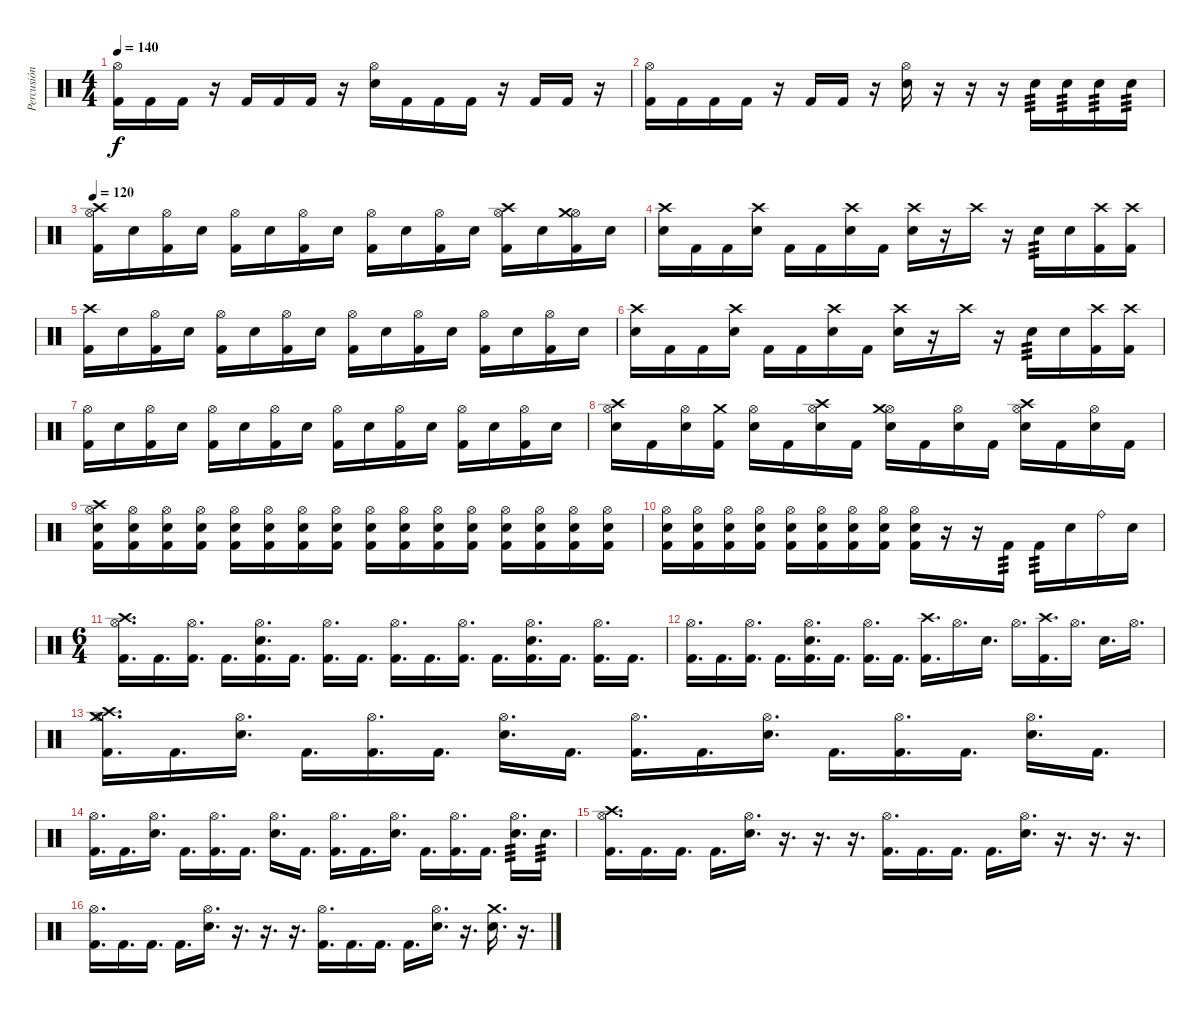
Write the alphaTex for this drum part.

\track ("Percusión" "Percusión") {instrument percussion}
\staff {score}
\articulation defaults
\ts (4 4)
\tempo 140
\clef neutral
\ks c
("Hi-Hat (open)" "Kick (hit) 2").16{dy f} "Kick (hit) 2".16 "Kick (hit) 2".16 r.16 "Kick (hit) 2".16 "Kick (hit) 2".16 "Kick (hit) 2".16 r.16 ("Hi-Hat (open)" "Electric Snare (hit)").16 "Kick (hit) 2".16 "Kick (hit) 2".16 "Kick (hit) 2".16 r.16 "Kick (hit) 2".16 "Kick (hit) 2".16 r.16 |
("Hi-Hat (open)" "Kick (hit) 2").16 "Kick (hit) 2".16 "Kick (hit) 2".16 "Kick (hit) 2".16 r.16 "Kick (hit) 2".16 "Kick (hit) 2".16 r.16 ("Hi-Hat (open)" "Electric Snare (hit)").16 r.16 r.16 r.16 "Electric Snare (hit)".16{tp 3} "Electric Snare (hit)".16{tp 3} "Electric Snare (hit)".16{tp 3} "Electric Snare (hit)".16{tp 3} |
\tempo 120
("Kick (hit) 2" "Hi-Hat (open)" "Crash high (hit)").16 "Electric Snare (hit)".16 ("Kick (hit) 2" "Hi-Hat (open)").16 "Electric Snare (hit)".16 ("Kick (hit) 2" "Hi-Hat (open)").16 "Electric Snare (hit)".16 ("Kick (hit) 2" "Hi-Hat (open)").16 "Electric Snare (hit)".16 ("Kick (hit) 2" "Hi-Hat (open)").16 "Electric Snare (hit)".16 ("Kick (hit) 2" "Hi-Hat (open)").16 "Electric Snare (hit)".16 ("Kick (hit) 2" "Hi-Hat (open)" "Crash high (hit)").16 "Electric Snare (hit)".16 ("Kick (hit) 2" "Hi-Hat (open)" "Crash medium (hit)").16 "Electric Snare (hit)".16 |
("Electric Snare (hit)" "Crash high (hit)").16 "Kick (hit) 2".16 "Kick (hit) 2".16 ("Electric Snare (hit)" "Crash high (hit)").16 "Kick (hit) 2".16 "Kick (hit) 2".16 ("Electric Snare (hit)" "Crash high (hit)").16 "Kick (hit) 2".16 ("Electric Snare (hit)" "Crash high (hit)").16 r.16 "Crash high (hit)".16 r.16 "Electric Snare (hit)".16{tp 3} "Electric Snare (hit)".16 ("Kick (hit) 2" "Crash high (hit)").16 ("Kick (hit) 2" "Crash high (hit)").16 |
("Kick (hit) 2" "Crash high (hit)").16 "Electric Snare (hit)".16 ("Kick (hit) 2" "Hi-Hat (open)").16 "Electric Snare (hit)".16 ("Kick (hit) 2" "Hi-Hat (open)").16 "Electric Snare (hit)".16 ("Kick (hit) 2" "Hi-Hat (open)").16 "Electric Snare (hit)".16 ("Kick (hit) 2" "Hi-Hat (open)").16 "Electric Snare (hit)".16 ("Kick (hit) 2" "Hi-Hat (open)").16 "Electric Snare (hit)".16 ("Kick (hit) 2" "Hi-Hat (open)").16 "Electric Snare (hit)".16 ("Kick (hit) 2" "Hi-Hat (open)").16 "Electric Snare (hit)".16 |
("Electric Snare (hit)" "Crash high (hit)").16 "Kick (hit) 2".16 "Kick (hit) 2".16 ("Electric Snare (hit)" "Crash high (hit)").16 "Kick (hit) 2".16 "Kick (hit) 2".16 ("Electric Snare (hit)" "Crash high (hit)").16 "Kick (hit) 2".16 ("Electric Snare (hit)" "Crash high (hit)").16 r.16 "Crash high (hit)".16 r.16 "Electric Snare (hit)".16{tp 3} "Electric Snare (hit)".16 ("Kick (hit) 2" "Crash high (hit)").16 ("Kick (hit) 2" "Crash high (hit)").16 |
("Kick (hit) 2" "Hi-Hat (open)").16 "Electric Snare (hit)".16 ("Kick (hit) 2" "Hi-Hat (open)").16 "Electric Snare (hit)".16 ("Kick (hit) 2" "Hi-Hat (open)").16 "Electric Snare (hit)".16 ("Kick (hit) 2" "Hi-Hat (open)").16 "Electric Snare (hit)".16 ("Kick (hit) 2" "Hi-Hat (open)").16 "Electric Snare (hit)".16 ("Kick (hit) 2" "Hi-Hat (open)").16 "Electric Snare (hit)".16 ("Kick (hit) 2" "Hi-Hat (open)").16 "Electric Snare (hit)".16 ("Kick (hit) 2" "Hi-Hat (open)").16 "Electric Snare (hit)".16 |
("Electric Snare (hit)" "Hi-Hat (open)" "Crash high (hit)").16 "Kick (hit) 2".16 ("Electric Snare (hit)" "Hi-Hat (open)").16 ("Kick (hit) 2" "Crash medium (hit)").16 ("Electric Snare (hit)" "Hi-Hat (open)").16 "Kick (hit) 2".16 ("Electric Snare (hit)" "Hi-Hat (open)" "Crash high (hit)").16 "Kick (hit) 2".16 ("Electric Snare (hit)" "Hi-Hat (open)" "Crash medium (hit)").16 "Kick (hit) 2".16 ("Snare (hit)" "Hi-Hat (open)").16 "Kick (hit) 2".16 ("Electric Snare (hit)" "Hi-Hat (open)" "Crash high (hit)").16 "Kick (hit) 2".16 ("Electric Snare (hit)" "Hi-Hat (open)").16 "Kick (hit) 2".16 |
("Electric Snare (hit)" "Hi-Hat (open)" "Crash high (hit)" "Kick (hit) 2").16 ("Electric Snare (hit)" "Hi-Hat (open)" "Kick (hit) 2").16 ("Electric Snare (hit)" "Hi-Hat (open)" "Kick (hit) 2").16 ("Electric Snare (hit)" "Hi-Hat (open)" "Kick (hit) 2").16 ("Electric Snare (hit)" "Hi-Hat (open)" "Kick (hit) 2").16 ("Electric Snare (hit)" "Hi-Hat (open)" "Kick (hit) 2").16 ("Electric Snare (hit)" "Hi-Hat (open)" "Kick (hit) 2").16 ("Electric Snare (hit)" "Hi-Hat (open)" "Kick (hit) 2").16 ("Electric Snare (hit)" "Hi-Hat (open)" "Kick (hit) 2").16 ("Electric Snare (hit)" "Hi-Hat (open)" "Kick (hit) 2").16 ("Electric Snare (hit)" "Hi-Hat (open)" "Kick (hit) 2").16 ("Electric Snare (hit)" "Hi-Hat (open)" "Kick (hit) 2").16 ("Electric Snare (hit)" "Hi-Hat (open)" "Kick (hit) 2").16 ("Electric Snare (hit)" "Hi-Hat (open)" "Kick (hit) 2").16 ("Electric Snare (hit)" "Hi-Hat (open)" "Kick (hit) 2").16 ("Electric Snare (hit)" "Hi-Hat (open)" "Kick (hit) 2").16 |
("Electric Snare (hit)" "Hi-Hat (open)" "Kick (hit) 2").16 ("Electric Snare (hit)" "Hi-Hat (open)" "Kick (hit) 2").16 ("Electric Snare (hit)" "Hi-Hat (open)" "Kick (hit) 2").16 ("Electric Snare (hit)" "Hi-Hat (open)" "Kick (hit) 2").16 ("Electric Snare (hit)" "Hi-Hat (open)" "Kick (hit) 2").16 ("Electric Snare (hit)" "Hi-Hat (open)" "Kick (hit) 2").16 ("Electric Snare (hit)" "Hi-Hat (open)" "Kick (hit) 2").16 ("Electric Snare (hit)" "Hi-Hat (open)" "Kick (hit) 2").16 ("Electric Snare (hit)" "Hi-Hat (open)" "Kick (hit) 2").16 r.16 r.16 "Kick (hit) 2".16{tp 3} "Kick (hit) 2".16{tp 3} "Electric Snare (hit)".16 "Ride (bell)".16 "Snare (hit)".16 |
\ts (6 4)
("Hi-Hat (open)" "Crash high (hit)" "Kick (hit) 2").16{d} "Kick (hit) 2".16{d} ("Hi-Hat (open)" "Kick (hit) 2").16{d} "Kick (hit) 2".16{d} ("Hi-Hat (open)" "Electric Snare (hit)" "Kick (hit) 2").16{d} "Kick (hit) 2".16{d} ("Hi-Hat (open)" "Kick (hit) 2").16{d} "Kick (hit) 2".16{d} ("Hi-Hat (open)" "Kick (hit) 2").16{d} "Kick (hit) 2".16{d} ("Hi-Hat (open)" "Kick (hit) 2").16{d} "Kick (hit) 2".16{d} ("Hi-Hat (open)" "Electric Snare (hit)" "Kick (hit) 2").16{d} "Kick (hit) 2".16{d} ("Hi-Hat (open)" "Kick (hit) 2").16{d} "Kick (hit) 2".16{d} |
("Hi-Hat (open)" "Kick (hit) 2").16{d} "Kick (hit) 2".16{d} ("Hi-Hat (open)" "Kick (hit) 2").16{d} "Kick (hit) 2".16{d} ("Hi-Hat (open)" "Electric Snare (hit)" "Kick (hit) 2").16{d} "Kick (hit) 2".16{d} ("Hi-Hat (open)" "Kick (hit) 2").16{d} "Kick (hit) 2".16{d} ("Crash high (hit)" "Kick (hit) 2").16{d} "Hi-Hat (open)".16{d} "Electric Snare (hit)".16{d} "Hi-Hat (open)".16{d} ("Crash high (hit)" "Kick (hit) 2").16{d} "Hi-Hat (open)".16{d} "Electric Snare (hit)".16{d} "Hi-Hat (open)".16{d} |
("Hi-Hat (open)" "Kick (hit) 2" "Crash high (hit)" "Crash medium (hit)").16{d} "Kick (hit) 2".16{d} ("Hi-Hat (open)" "Electric Snare (hit)").16{d} "Kick (hit) 2".16{d} ("Hi-Hat (open)" "Kick (hit) 2").16{d} "Kick (hit) 2".16{d} ("Hi-Hat (open)" "Electric Snare (hit)").16{d} "Kick (hit) 2".16{d} ("Hi-Hat (open)" "Kick (hit) 2").16{d} "Kick (hit) 2".16{d} ("Hi-Hat (open)" "Electric Snare (hit)").16{d} "Kick (hit) 2".16{d} ("Hi-Hat (open)" "Kick (hit) 2").16{d} "Kick (hit) 2".16{d} ("Hi-Hat (open)" "Electric Snare (hit)").16{d} "Kick (hit) 2".16{d} |
("Hi-Hat (open)" "Kick (hit) 2").16{d} "Kick (hit) 2".16{d} ("Hi-Hat (open)" "Electric Snare (hit)").16{d} "Kick (hit) 2".16{d} ("Hi-Hat (open)" "Kick (hit) 2").16{d} "Kick (hit) 2".16{d} ("Hi-Hat (open)" "Electric Snare (hit)").16{d} "Kick (hit) 2".16{d} ("Hi-Hat (open)" "Kick (hit) 2").16{d} "Kick (hit) 2".16{d} ("Hi-Hat (open)" "Electric Snare (hit)").16{d} "Kick (hit) 2".16{d} ("Hi-Hat (open)" "Kick (hit) 2").16{d} "Kick (hit) 2".16{d} ("Hi-Hat (open)" "Electric Snare (hit)").16{d tp 3} "Electric Snare (hit)".16{d tp 3} |
("Hi-Hat (open)" "Kick (hit) 2" "Crash high (hit)").16{d} "Kick (hit) 2".16{d} "Kick (hit) 2".16{d} "Kick (hit) 2".16{d} ("Hi-Hat (open)" "Electric Snare (hit)").16{d} r.16{d} r.16{d} r.16{d} ("Hi-Hat (open)" "Kick (hit) 2").16{d} "Kick (hit) 2".16{d} "Kick (hit) 2".16{d} "Kick (hit) 2".16{d} ("Hi-Hat (open)" "Electric Snare (hit)").16{d} r.16{d} r.16{d} r.16{d} |
("Hi-Hat (open)" "Kick (hit) 2").16{d} "Kick (hit) 2".16{d} "Kick (hit) 2".16{d} "Kick (hit) 2".16{d} ("Hi-Hat (open)" "Electric Snare (hit)").16{d} r.16{d} r.16{d} r.16{d} ("Hi-Hat (open)" "Kick (hit) 2").16{d} "Kick (hit) 2".16{d} "Kick (hit) 2".16{d} "Kick (hit) 2".16{d} ("Hi-Hat (open)" "Electric Snare (hit)").16{d} r.16{d} ("Electric Snare (hit)" "Crash medium (hit)").16{d} r.16{d}
